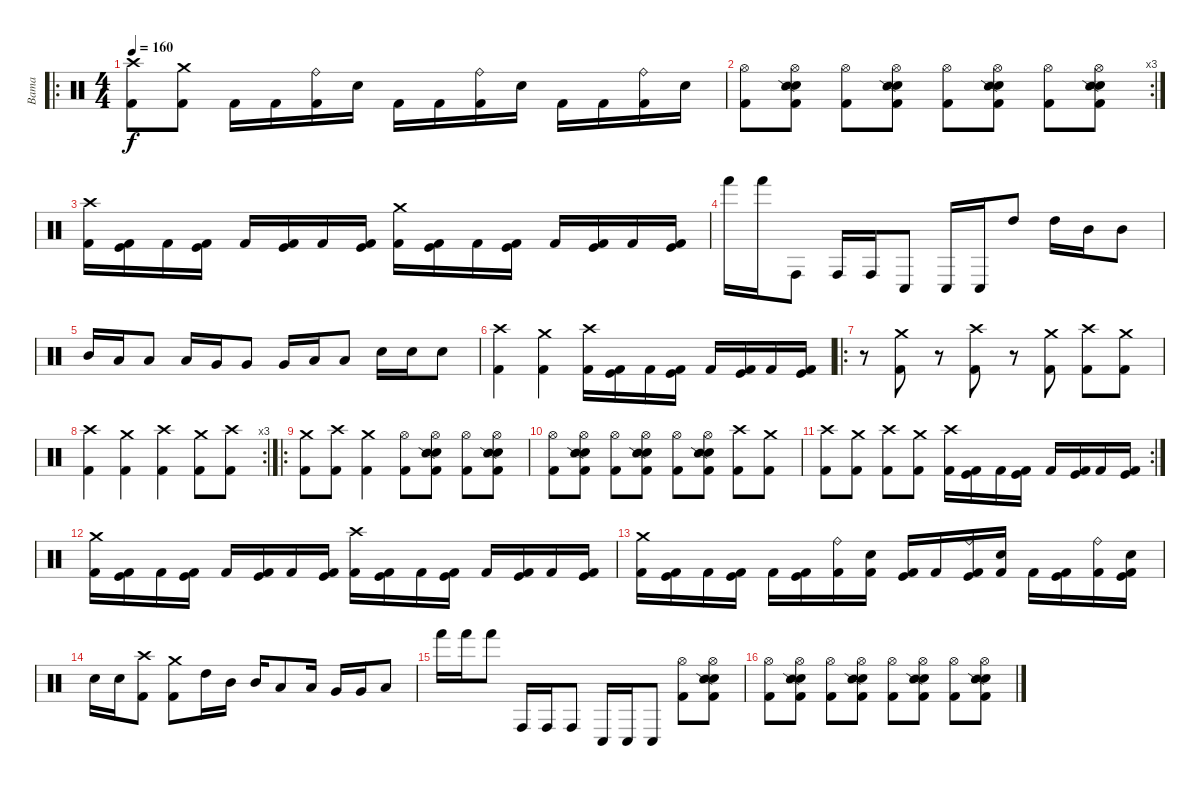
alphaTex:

\track ("Bama" "Bama") {instrument percussion}
\staff {score}
\articulation defaults
\ro
\ts (4 4)
\tempo 160
\clef neutral
\ks c
("Crash high (hit)" "Kick (hit) 2").8{dy f} ("Crash medium (hit)" "Kick (hit) 2").8 "Kick (hit) 2".16 "Kick (hit) 2".16 ("Ride (bell)" "Kick (hit) 2").16 "Electric Snare (hit)".16 "Kick (hit) 2".16 "Kick (hit) 2".16 ("Ride (bell)" "Kick (hit) 2").16 "Electric Snare (hit)".16 "Kick (hit) 2".16 "Kick (hit) 2".16 ("Ride (bell)" "Kick (hit) 2").16 "Electric Snare (hit)".16 |
\rc 3
("Hi-Hat (open)" "Kick (hit) 2").8 ("Hi-Hat (open)" "Electric Snare (hit)" "Snare (side stick) 2" "Kick (hit) 2").8 ("Hi-Hat (open)" "Kick (hit) 2").8 ("Hi-Hat (open)" "Electric Snare (hit)" "Snare (side stick) 2" "Kick (hit) 2").8 ("Hi-Hat (open)" "Kick (hit) 2").8 ("Hi-Hat (open)" "Electric Snare (hit)" "Snare (side stick) 2" "Kick (hit) 2").8 ("Hi-Hat (open)" "Kick (hit) 2").8 ("Hi-Hat (open)" "Electric Snare (hit)" "Snare (side stick) 2" "Kick (hit) 2").8 |
("Crash high (hit)" "Kick (hit) 2").16 ("Kick (hit)" "Kick (hit) 2").16 "Kick (hit) 2".16 ("Kick (hit)" "Kick (hit) 2").16 "Kick (hit) 2".16 ("Kick (hit)" "Kick (hit) 2").16 "Kick (hit) 2".16 ("Kick (hit)" "Kick (hit) 2").16 ("Crash medium (hit)" "Kick (hit) 2").16 ("Kick (hit)" "Kick (hit) 2").16 "Kick (hit) 2".16 ("Kick (hit)" "Kick (hit) 2").16 "Kick (hit) 2".16 ("Kick (hit)" "Kick (hit) 2").16 "Kick (hit) 2".16 ("Kick (hit)" "Kick (hit) 2").16 |
"Hand (hit)".16 "Hand (hit)".16 "Conga high (hit)".8 "Conga high (hit)".16 "Conga high (hit)".16 "Conga low (hit)".8 "Conga low (hit)".16 "Conga low (hit)".16 "High Tom (hit)".8 "High Tom (hit)".16 "Mid Tom (hit)".16 "Mid Tom (hit)".8 |
"Mid Tom (hit)".16 "Low Tom (hit)".16 "Low Tom (hit)".8 "Low Tom (hit)".16 "Very Low Tom (hit)".16 "Very Low Tom (hit)".8 "Very Low Tom (hit)".16 "Low Floor Tom (hit)".16 "Low Floor Tom (hit)".8 "Electric Snare (hit)".16 "Electric Snare (hit)".16 "Electric Snare (hit)".8 |
("Crash high (hit)" "Kick (hit) 2").4 ("Crash medium (hit)" "Kick (hit) 2").4 ("Crash high (hit)" "Kick (hit) 2").16 ("Kick (hit)" "Kick (hit) 2").16 "Kick (hit) 2".16 ("Kick (hit)" "Kick (hit) 2").16 "Kick (hit) 2".16 ("Kick (hit)" "Kick (hit) 2").16 "Kick (hit) 2".16 ("Kick (hit)" "Kick (hit) 2").16 |
\ro
r.8 ("Crash medium (hit)" "Kick (hit) 2").8 r.8 ("Crash high (hit)" "Kick (hit) 2").8 r.8 ("Crash medium (hit)" "Kick (hit) 2").8 ("Crash high (hit)" "Kick (hit) 2").8 ("Crash medium (hit)" "Kick (hit) 2").8 |
\rc 3
("Crash high (hit)" "Kick (hit) 2").4 ("Crash medium (hit)" "Kick (hit) 2").4 ("Crash high (hit)" "Kick (hit) 2").4 ("Crash medium (hit)" "Kick (hit) 2").8 ("Crash high (hit)" "Kick (hit) 2").8 |
\ro
("Crash medium (hit)" "Kick (hit) 2").8 ("Crash high (hit)" "Kick (hit) 2").8 ("Crash medium (hit)" "Kick (hit) 2").4 ("Hi-Hat (open)" "Kick (hit) 2").8 ("Hi-Hat (open)" "Electric Snare (hit)" "Snare (side stick) 2" "Kick (hit) 2").8 ("Hi-Hat (open)" "Kick (hit) 2").8 ("Hi-Hat (open)" "Electric Snare (hit)" "Snare (side stick) 2" "Kick (hit) 2").8 |
("Hi-Hat (open)" "Kick (hit) 2").8 ("Hi-Hat (open)" "Electric Snare (hit)" "Snare (side stick) 2" "Kick (hit) 2").8 ("Hi-Hat (open)" "Kick (hit) 2").8 ("Hi-Hat (open)" "Electric Snare (hit)" "Snare (side stick) 2" "Kick (hit) 2").8 ("Hi-Hat (open)" "Kick (hit) 2").8 ("Hi-Hat (open)" "Electric Snare (hit)" "Snare (side stick) 2" "Kick (hit) 2").8 ("Crash high (hit)" "Kick (hit) 2").8 ("Crash medium (hit)" "Kick (hit) 2").8 |
\rc 2
("Crash high (hit)" "Kick (hit) 2").8 ("Crash medium (hit)" "Kick (hit) 2").8 ("Crash high (hit)" "Kick (hit) 2").8 ("Crash medium (hit)" "Kick (hit) 2").8 ("Crash high (hit)" "Kick (hit) 2").16 ("Kick (hit)" "Kick (hit) 2").16 "Kick (hit) 2".16 ("Kick (hit)" "Kick (hit) 2").16 "Kick (hit) 2".16 ("Kick (hit)" "Kick (hit) 2").16 "Kick (hit) 2".16 ("Kick (hit)" "Kick (hit) 2").16 |
("Crash medium (hit)" "Kick (hit) 2").16 ("Kick (hit)" "Kick (hit) 2").16 "Kick (hit) 2".16 ("Kick (hit)" "Kick (hit) 2").16 "Kick (hit) 2".16 ("Kick (hit)" "Kick (hit) 2").16 "Kick (hit) 2".16 ("Kick (hit)" "Kick (hit) 2").16 ("Crash high (hit)" "Kick (hit) 2").16 ("Kick (hit)" "Kick (hit) 2").16 "Kick (hit) 2".16 ("Kick (hit)" "Kick (hit) 2").16 "Kick (hit) 2".16 ("Kick (hit)" "Kick (hit) 2").16 "Kick (hit) 2".16 ("Kick (hit)" "Kick (hit) 2").16 |
("Crash medium (hit)" "Kick (hit) 2").16 ("Kick (hit)" "Kick (hit) 2").16 "Kick (hit) 2".16 ("Kick (hit)" "Kick (hit) 2").16 "Kick (hit) 2".16 ("Kick (hit)" "Kick (hit) 2").16 ("Ride (bell)" "Kick (hit) 2").16 ("Electric Snare (hit)" "Kick (hit) 2").16 ("Kick (hit)" "Kick (hit) 2").16 "Kick (hit) 2".16 ("Ride (bell)" "Kick (hit)" "Kick (hit) 2").16 ("Electric Snare (hit)" "Kick (hit) 2").16 "Kick (hit) 2".16 ("Kick (hit)" "Kick (hit) 2").16 ("Ride (bell)" "Kick (hit) 2").16 ("Electric Snare (hit)" "Kick (hit)" "Kick (hit) 2").16 |
"Electric Snare (hit)".16 "Electric Snare (hit)".16 ("Crash high (hit)" "Kick (hit) 2").8 ("Crash medium (hit)" "Kick (hit) 2").8 "High Tom (hit)".16 "Mid Tom (hit)".16 "Mid Tom (hit)".16 "Low Tom (hit)".8 "Low Tom (hit)".16 "Very Low Tom (hit)".16 "Very Low Tom (hit)".16 "Low Floor Tom (hit)".8 |
"Hand (hit)".16 "Hand (hit)".16 "Hand (hit)".8 "Conga high (hit)".16 "Conga high (hit)".16 "Conga high (hit)".8 "Conga low (hit)".16 "Conga low (hit)".16 "Conga low (hit)".8 ("Hi-Hat (open)" "Kick (hit) 2").8 ("Hi-Hat (open)" "Electric Snare (hit)" "Snare (side stick) 2" "Kick (hit) 2").8 |
("Hi-Hat (open)" "Kick (hit) 2").8 ("Hi-Hat (open)" "Electric Snare (hit)" "Snare (side stick) 2" "Kick (hit) 2").8 ("Hi-Hat (open)" "Kick (hit) 2").8 ("Hi-Hat (open)" "Electric Snare (hit)" "Snare (side stick) 2" "Kick (hit) 2").8 ("Hi-Hat (open)" "Kick (hit) 2").8 ("Hi-Hat (open)" "Electric Snare (hit)" "Snare (side stick) 2" "Kick (hit) 2").8 ("Hi-Hat (open)" "Kick (hit) 2").8 ("Hi-Hat (open)" "Electric Snare (hit)" "Snare (side stick) 2" "Kick (hit) 2").8
